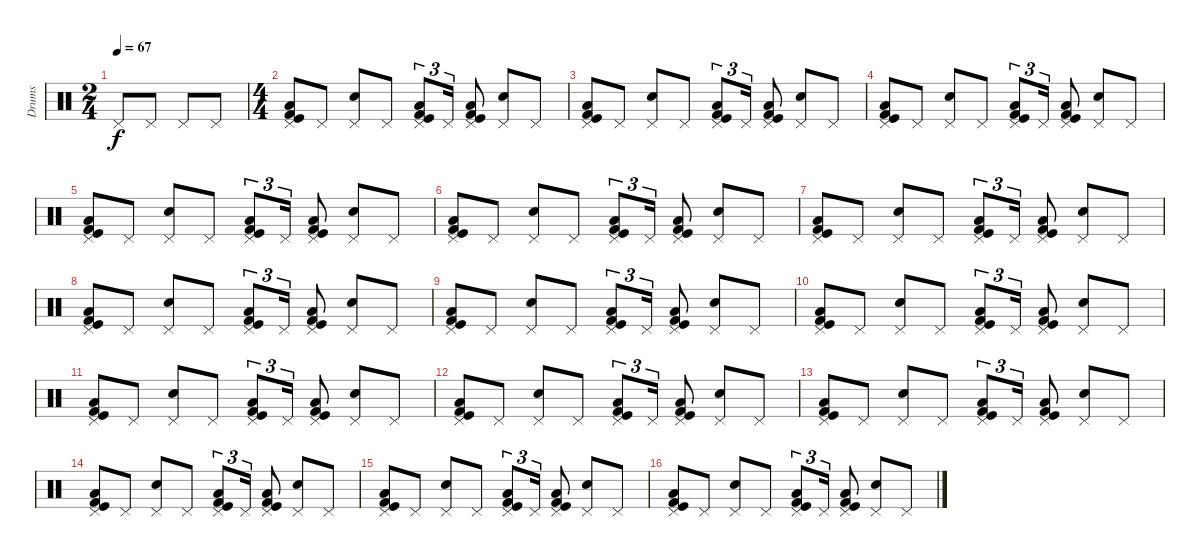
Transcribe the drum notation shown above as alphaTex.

\track ("Drums" "Drums") {instrument percussion}
\staff {score}
\articulation defaults
\ts (2 4)
\tempo 67
\clef neutral
\ks c "Pedal Hi-Hat (hit)".8{dy f volume 0} "Pedal Hi-Hat (hit)".8{volume 14} "Pedal Hi-Hat (hit)".8 "Pedal Hi-Hat (hit)".8
|
\ts (4 4)
("Pedal Hi-Hat (hit)" "Kick (hit) 2" "Kick (hit)" "Low Tom (hit)").8 "Pedal Hi-Hat (hit)".8 ("Pedal Hi-Hat (hit)" "Electric Snare (hit)").8 "Pedal Hi-Hat (hit)".8 ("Pedal Hi-Hat (hit)" "Kick (hit) 2" "Kick (hit)" "Low Tom (hit)").8{tu (3 2)} "Pedal Hi-Hat (hit)".16{tu (3 2)} ("Pedal Hi-Hat (hit)" "Kick (hit) 2" "Kick (hit)" "Low Tom (hit)").8 ("Pedal Hi-Hat (hit)" "Electric Snare (hit)").8 "Pedal Hi-Hat (hit)".8 |
("Pedal Hi-Hat (hit)" "Kick (hit) 2" "Kick (hit)" "Low Tom (hit)").8 "Pedal Hi-Hat (hit)".8 ("Pedal Hi-Hat (hit)" "Electric Snare (hit)").8 "Pedal Hi-Hat (hit)".8 ("Pedal Hi-Hat (hit)" "Kick (hit) 2" "Kick (hit)" "Low Tom (hit)").8{tu (3 2)} "Pedal Hi-Hat (hit)".16{tu (3 2)} ("Pedal Hi-Hat (hit)" "Kick (hit) 2" "Kick (hit)" "Low Tom (hit)").8 ("Pedal Hi-Hat (hit)" "Electric Snare (hit)").8 "Pedal Hi-Hat (hit)".8 |
("Pedal Hi-Hat (hit)" "Kick (hit) 2" "Kick (hit)" "Low Tom (hit)").8 "Pedal Hi-Hat (hit)".8 ("Pedal Hi-Hat (hit)" "Electric Snare (hit)").8 "Pedal Hi-Hat (hit)".8 ("Pedal Hi-Hat (hit)" "Kick (hit) 2" "Kick (hit)" "Low Tom (hit)").8{tu (3 2)} "Pedal Hi-Hat (hit)".16{tu (3 2)} ("Pedal Hi-Hat (hit)" "Kick (hit) 2" "Kick (hit)" "Low Tom (hit)").8 ("Pedal Hi-Hat (hit)" "Electric Snare (hit)").8 "Pedal Hi-Hat (hit)".8 |
("Pedal Hi-Hat (hit)" "Kick (hit) 2" "Kick (hit)" "Low Tom (hit)").8 "Pedal Hi-Hat (hit)".8 ("Pedal Hi-Hat (hit)" "Electric Snare (hit)").8 "Pedal Hi-Hat (hit)".8 ("Pedal Hi-Hat (hit)" "Kick (hit) 2" "Kick (hit)" "Low Tom (hit)").8{tu (3 2)} "Pedal Hi-Hat (hit)".16{tu (3 2)} ("Pedal Hi-Hat (hit)" "Kick (hit) 2" "Kick (hit)" "Low Tom (hit)").8 ("Pedal Hi-Hat (hit)" "Electric Snare (hit)").8 "Pedal Hi-Hat (hit)".8 |
("Pedal Hi-Hat (hit)" "Kick (hit) 2" "Kick (hit)" "Low Tom (hit)").8 "Pedal Hi-Hat (hit)".8 ("Pedal Hi-Hat (hit)" "Electric Snare (hit)").8 "Pedal Hi-Hat (hit)".8 ("Pedal Hi-Hat (hit)" "Kick (hit) 2" "Kick (hit)" "Low Tom (hit)").8{tu (3 2)} "Pedal Hi-Hat (hit)".16{tu (3 2)} ("Pedal Hi-Hat (hit)" "Kick (hit) 2" "Kick (hit)" "Low Tom (hit)").8 ("Pedal Hi-Hat (hit)" "Electric Snare (hit)").8 "Pedal Hi-Hat (hit)".8 |
("Pedal Hi-Hat (hit)" "Kick (hit) 2" "Kick (hit)" "Low Tom (hit)").8 "Pedal Hi-Hat (hit)".8 ("Pedal Hi-Hat (hit)" "Electric Snare (hit)").8 "Pedal Hi-Hat (hit)".8 ("Pedal Hi-Hat (hit)" "Kick (hit) 2" "Kick (hit)" "Low Tom (hit)").8{tu (3 2)} "Pedal Hi-Hat (hit)".16{tu (3 2)} ("Pedal Hi-Hat (hit)" "Kick (hit) 2" "Kick (hit)" "Low Tom (hit)").8 ("Pedal Hi-Hat (hit)" "Electric Snare (hit)").8 "Pedal Hi-Hat (hit)".8 |
("Pedal Hi-Hat (hit)" "Kick (hit) 2" "Kick (hit)" "Low Tom (hit)").8 "Pedal Hi-Hat (hit)".8 ("Pedal Hi-Hat (hit)" "Electric Snare (hit)").8 "Pedal Hi-Hat (hit)".8 ("Pedal Hi-Hat (hit)" "Kick (hit) 2" "Kick (hit)" "Low Tom (hit)").8{tu (3 2)} "Pedal Hi-Hat (hit)".16{tu (3 2)} ("Pedal Hi-Hat (hit)" "Kick (hit) 2" "Kick (hit)" "Low Tom (hit)").8 ("Pedal Hi-Hat (hit)" "Electric Snare (hit)").8 "Pedal Hi-Hat (hit)".8 |
("Pedal Hi-Hat (hit)" "Kick (hit) 2" "Kick (hit)" "Low Tom (hit)").8 "Pedal Hi-Hat (hit)".8 ("Pedal Hi-Hat (hit)" "Electric Snare (hit)").8 "Pedal Hi-Hat (hit)".8 ("Pedal Hi-Hat (hit)" "Kick (hit) 2" "Kick (hit)" "Low Tom (hit)").8{tu (3 2)} "Pedal Hi-Hat (hit)".16{tu (3 2)} ("Pedal Hi-Hat (hit)" "Kick (hit) 2" "Kick (hit)" "Low Tom (hit)").8 ("Pedal Hi-Hat (hit)" "Electric Snare (hit)").8 "Pedal Hi-Hat (hit)".8 |
("Pedal Hi-Hat (hit)" "Kick (hit) 2" "Kick (hit)" "Low Tom (hit)").8 "Pedal Hi-Hat (hit)".8 ("Pedal Hi-Hat (hit)" "Electric Snare (hit)").8 "Pedal Hi-Hat (hit)".8 ("Pedal Hi-Hat (hit)" "Kick (hit) 2" "Kick (hit)" "Low Tom (hit)").8{tu (3 2)} "Pedal Hi-Hat (hit)".16{tu (3 2)} ("Pedal Hi-Hat (hit)" "Kick (hit) 2" "Kick (hit)" "Low Tom (hit)").8 ("Pedal Hi-Hat (hit)" "Electric Snare (hit)").8 "Pedal Hi-Hat (hit)".8 |
("Pedal Hi-Hat (hit)" "Kick (hit) 2" "Kick (hit)" "Low Tom (hit)").8 "Pedal Hi-Hat (hit)".8 ("Pedal Hi-Hat (hit)" "Electric Snare (hit)").8 "Pedal Hi-Hat (hit)".8 ("Pedal Hi-Hat (hit)" "Kick (hit) 2" "Kick (hit)" "Low Tom (hit)").8{tu (3 2)} "Pedal Hi-Hat (hit)".16{tu (3 2)} ("Pedal Hi-Hat (hit)" "Kick (hit) 2" "Kick (hit)" "Low Tom (hit)").8 ("Pedal Hi-Hat (hit)" "Electric Snare (hit)").8 "Pedal Hi-Hat (hit)".8 |
("Pedal Hi-Hat (hit)" "Kick (hit) 2" "Kick (hit)" "Low Tom (hit)").8 "Pedal Hi-Hat (hit)".8 ("Pedal Hi-Hat (hit)" "Electric Snare (hit)").8 "Pedal Hi-Hat (hit)".8 ("Pedal Hi-Hat (hit)" "Kick (hit) 2" "Kick (hit)" "Low Tom (hit)").8{tu (3 2)} "Pedal Hi-Hat (hit)".16{tu (3 2)} ("Pedal Hi-Hat (hit)" "Kick (hit) 2" "Kick (hit)" "Low Tom (hit)").8 ("Pedal Hi-Hat (hit)" "Electric Snare (hit)").8 "Pedal Hi-Hat (hit)".8 |
("Pedal Hi-Hat (hit)" "Kick (hit) 2" "Kick (hit)" "Low Tom (hit)").8 "Pedal Hi-Hat (hit)".8 ("Pedal Hi-Hat (hit)" "Electric Snare (hit)").8 "Pedal Hi-Hat (hit)".8 ("Pedal Hi-Hat (hit)" "Kick (hit) 2" "Kick (hit)" "Low Tom (hit)").8{tu (3 2)} "Pedal Hi-Hat (hit)".16{tu (3 2)} ("Pedal Hi-Hat (hit)" "Kick (hit) 2" "Kick (hit)" "Low Tom (hit)").8 ("Pedal Hi-Hat (hit)" "Electric Snare (hit)").8 "Pedal Hi-Hat (hit)".8 |
("Pedal Hi-Hat (hit)" "Kick (hit) 2" "Kick (hit)" "Low Tom (hit)").8 "Pedal Hi-Hat (hit)".8 ("Pedal Hi-Hat (hit)" "Electric Snare (hit)").8 "Pedal Hi-Hat (hit)".8 ("Pedal Hi-Hat (hit)" "Kick (hit) 2" "Kick (hit)" "Low Tom (hit)").8{tu (3 2)} "Pedal Hi-Hat (hit)".16{tu (3 2)} ("Pedal Hi-Hat (hit)" "Kick (hit) 2" "Kick (hit)" "Low Tom (hit)").8 ("Pedal Hi-Hat (hit)" "Electric Snare (hit)").8 "Pedal Hi-Hat (hit)".8 |
("Pedal Hi-Hat (hit)" "Kick (hit) 2" "Kick (hit)" "Low Tom (hit)").8 "Pedal Hi-Hat (hit)".8 ("Pedal Hi-Hat (hit)" "Electric Snare (hit)").8 "Pedal Hi-Hat (hit)".8 ("Pedal Hi-Hat (hit)" "Kick (hit) 2" "Kick (hit)" "Low Tom (hit)").8{tu (3 2)} "Pedal Hi-Hat (hit)".16{tu (3 2)} ("Pedal Hi-Hat (hit)" "Kick (hit) 2" "Kick (hit)" "Low Tom (hit)").8 ("Pedal Hi-Hat (hit)" "Electric Snare (hit)").8 "Pedal Hi-Hat (hit)".8 |
("Pedal Hi-Hat (hit)" "Kick (hit) 2" "Kick (hit)" "Low Tom (hit)").8 "Pedal Hi-Hat (hit)".8 ("Pedal Hi-Hat (hit)" "Electric Snare (hit)").8 "Pedal Hi-Hat (hit)".8 ("Pedal Hi-Hat (hit)" "Kick (hit) 2" "Kick (hit)" "Low Tom (hit)").8{tu (3 2)} "Pedal Hi-Hat (hit)".16{tu (3 2)} ("Pedal Hi-Hat (hit)" "Kick (hit) 2" "Kick (hit)" "Low Tom (hit)").8 ("Pedal Hi-Hat (hit)" "Electric Snare (hit)").8 "Pedal Hi-Hat (hit)".8
